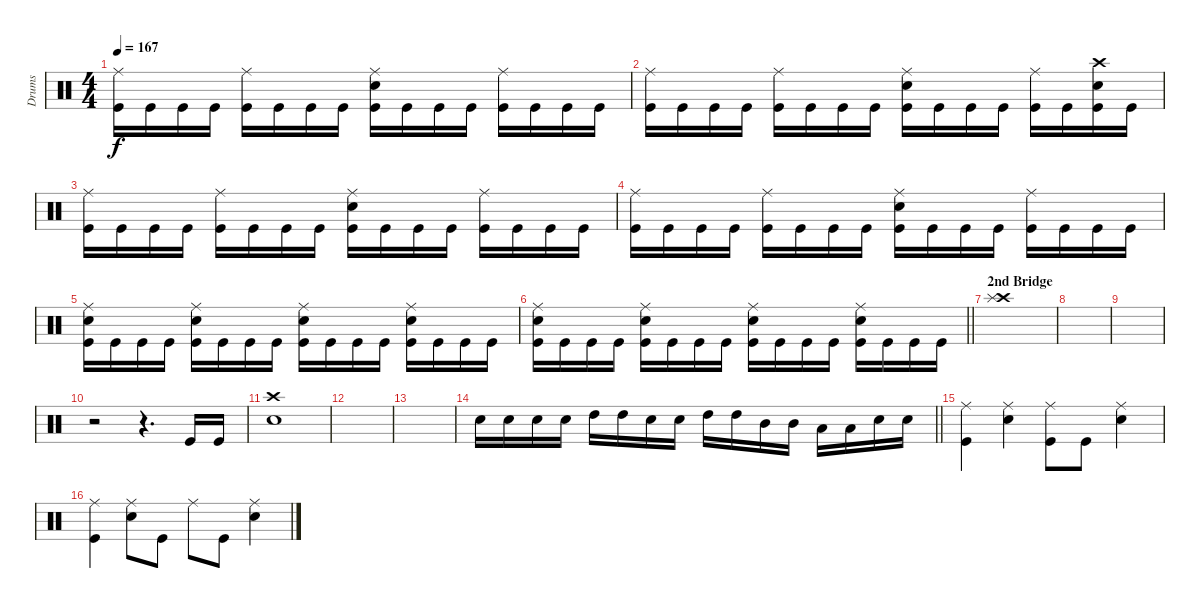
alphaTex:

\track ("Drums" "Drums") {instrument percussion}
\staff {score}
\articulation defaults
\ts (4 4)
\tempo 167
\clef neutral
\ks c
("Ride (middle)" "Kick (hit)").16{dy f} "Kick (hit)".16 "Kick (hit)".16 "Kick (hit)".16 ("Ride (middle)" "Kick (hit)").16 "Kick (hit)".16 "Kick (hit)".16 "Kick (hit)".16 ("Ride (middle)" "Snare (hit) 2" "Kick (hit)").16 "Kick (hit)".16 "Kick (hit)".16 "Kick (hit)".16 ("Ride (middle)" "Kick (hit)").16 "Kick (hit)".16 "Kick (hit)".16 "Kick (hit)".16 |
("Ride (middle)" "Kick (hit)").16 "Kick (hit)".16 "Kick (hit)".16 "Kick (hit)".16 ("Ride (middle)" "Kick (hit)").16 "Kick (hit)".16 "Kick (hit)".16 "Kick (hit)".16 ("Ride (middle)" "Snare (hit) 2" "Kick (hit)").16 "Kick (hit)".16 "Kick (hit)".16 "Kick (hit)".16 ("Ride (middle)" "Kick (hit)").16 "Kick (hit)".16 ("Crash high (hit)" "Snare (hit) 2" "Kick (hit)").16 "Kick (hit)".16 |
("Ride (middle)" "Kick (hit)").16 "Kick (hit)".16 "Kick (hit)".16 "Kick (hit)".16 ("Ride (middle)" "Kick (hit)").16 "Kick (hit)".16 "Kick (hit)".16 "Kick (hit)".16 ("Ride (middle)" "Snare (hit) 2" "Kick (hit)").16 "Kick (hit)".16 "Kick (hit)".16 "Kick (hit)".16 ("Ride (middle)" "Kick (hit)").16 "Kick (hit)".16 "Kick (hit)".16 "Kick (hit)".16 |
("Ride (middle)" "Kick (hit)").16 "Kick (hit)".16 "Kick (hit)".16 "Kick (hit)".16 ("Ride (middle)" "Kick (hit)").16 "Kick (hit)".16 "Kick (hit)".16 "Kick (hit)".16 ("Ride (middle)" "Snare (hit) 2" "Kick (hit)").16 "Kick (hit)".16 "Kick (hit)".16 "Kick (hit)".16 ("Ride (middle)" "Kick (hit)").16 "Kick (hit)".16 "Kick (hit)".16 "Kick (hit)".16 |
("Ride (middle)" "Snare (hit) 2" "Kick (hit)").16 "Kick (hit)".16 "Kick (hit)".16 "Kick (hit)".16 ("Ride (middle)" "Snare (hit) 2" "Kick (hit)").16 "Kick (hit)".16 "Kick (hit)".16 "Kick (hit)".16 ("Ride (middle)" "Snare (hit) 2" "Kick (hit)").16 "Kick (hit)".16 "Kick (hit)".16 "Kick (hit)".16 ("Ride (middle)" "Snare (hit) 2" "Kick (hit)").16 "Kick (hit)".16 "Kick (hit)".16 "Kick (hit)".16 |
\barLineRight lightlight
("Ride (middle)" "Snare (hit) 2" "Kick (hit)").16 "Kick (hit)".16 "Kick (hit)".16 "Kick (hit)".16 ("Ride (middle)" "Snare (hit) 2" "Kick (hit)").16 "Kick (hit)".16 "Kick (hit)".16 "Kick (hit)".16 ("Ride (middle)" "Snare (hit) 2" "Kick (hit)").16 "Kick (hit)".16 "Kick (hit)".16 "Kick (hit)".16 ("Ride (middle)" "Snare (hit) 2" "Kick (hit)").16 "Kick (hit)".16 "Kick (hit)".16 "Kick (hit)".16 |
\section ("" "2nd Bridge")
("Crash high (hit)" "Splash (hit)").1 |
|
|
r.2 r.4{d} "Kick (hit)".16 "Kick (hit)".16 |
("Crash high (hit)" "Snare (hit) 2").1 |
|
|
\barLineRight lightlight "Snare (hit) 2".16 "Snare (hit) 2".16 "Snare (hit) 2".16 "Snare (hit) 2".16 "High Tom (hit)".16 "High Tom (hit)".16 "Snare (hit) 2".16 "Snare (hit) 2".16 "High Tom (hit)".16 "High Tom (hit)".16 "Mid Tom (hit)".16 "Mid Tom (hit)".16 "Low Tom (hit)".16 "Low Tom (hit)".16 "Snare (hit) 2".16 "Snare (hit) 2".16
|
("Ride (middle)" "Kick (hit)").4 ("Ride (middle)" "Snare (hit) 2").4 ("Ride (middle)" "Kick (hit)").8 "Kick (hit)".8 ("Ride (middle)" "Snare (hit) 2").4 |
("Ride (middle)" "Kick (hit)").4 ("Ride (middle)" "Snare (hit) 2").8 "Kick (hit)".8 "Ride (middle)".8 "Kick (hit)".8 ("Ride (middle)" "Snare (hit) 2").4
